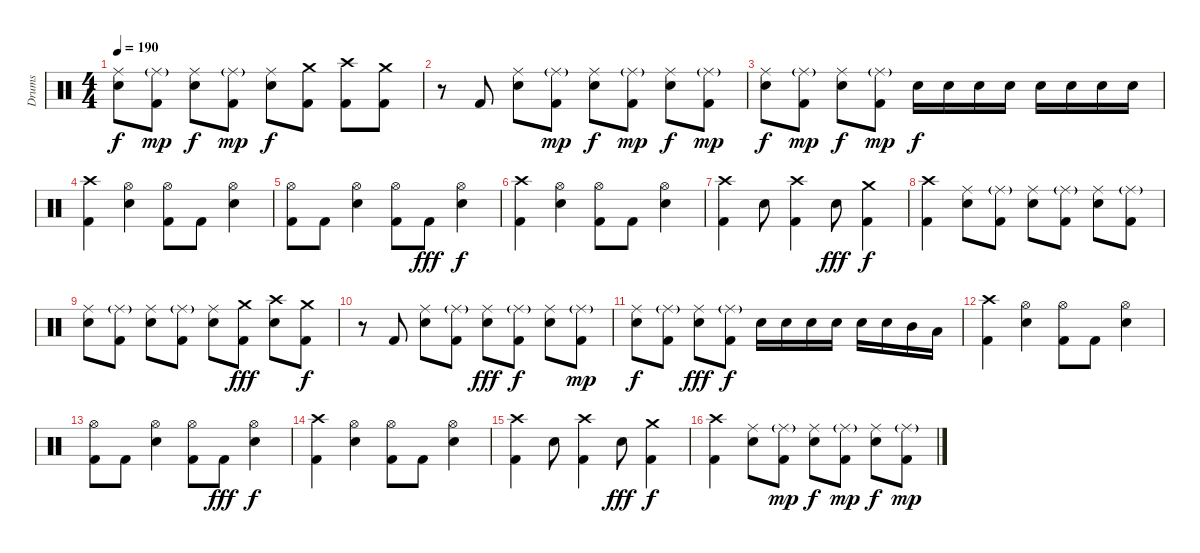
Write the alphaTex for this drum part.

\track ("Drums" "Drums") {instrument percussion}
\staff {score}
\articulation defaults
\ts (4 4)
\tempo 190
\clef neutral
\ks c
("Ride (middle)" "Electric Snare (hit)").8{dy f} ("Ride (middle)"{g} "Kick (hit) 2").8{dy mp} ("Ride (middle)" "Electric Snare (hit)").8{dy f} ("Ride (middle)"{g} "Kick (hit) 2").8{dy mp} ("Ride (middle)" "Electric Snare (hit)").8{dy f} ("Crash medium (hit)" "Kick (hit) 2").8 ("Crash high (hit)" "Kick (hit) 2").8 ("Crash medium (hit)" "Kick (hit) 2").8 |
r.8 "Kick (hit) 2".8 ("Ride (middle)" "Electric Snare (hit)").8 ("Ride (middle)"{g} "Kick (hit) 2").8{dy mp} ("Ride (middle)" "Electric Snare (hit)").8{dy f} ("Ride (middle)"{g} "Kick (hit) 2").8{dy mp} ("Ride (middle)" "Electric Snare (hit)").8{dy f} ("Ride (middle)"{g} "Kick (hit) 2").8{dy mp} |
("Ride (middle)" "Electric Snare (hit)").8{dy f} ("Ride (middle)"{g} "Kick (hit) 2").8{dy mp} ("Ride (middle)" "Electric Snare (hit)").8{dy f} ("Ride (middle)"{g} "Kick (hit) 2").8{dy mp} "Electric Snare (hit)".16{dy f} "Electric Snare (hit)".16 "Electric Snare (hit)".16 "Electric Snare (hit)".16 "Electric Snare (hit)".16 "Electric Snare (hit)".16 "Electric Snare (hit)".16 "Electric Snare (hit)".16 |
("Crash high (hit)" "Kick (hit) 2").4 ("Hi-Hat (open)" "Electric Snare (hit)").4 ("Hi-Hat (open)" "Kick (hit) 2").8 "Kick (hit) 2".8 ("Hi-Hat (open)" "Electric Snare (hit)").4 |
("Hi-Hat (open)" "Kick (hit) 2").8 "Kick (hit) 2".8 ("Hi-Hat (open)" "Electric Snare (hit)").4 ("Hi-Hat (open)" "Kick (hit) 2").8 "Kick (hit) 2".8{dy fff} ("Hi-Hat (open)" "Electric Snare (hit)").4{dy f} |
("Crash high (hit)" "Kick (hit) 2").4 ("Hi-Hat (open)" "Electric Snare (hit)").4 ("Hi-Hat (open)" "Kick (hit) 2").8 "Kick (hit) 2".8 ("Hi-Hat (open)" "Electric Snare (hit)").4 |
("Crash high (hit)" "Kick (hit) 2").4 "Electric Snare (hit)".8 ("Crash high (hit)" "Kick (hit) 2").4 "Electric Snare (hit)".8{dy fff} ("Crash medium (hit)" "Kick (hit) 2").4{dy f} |
("Crash high (hit)" "Kick (hit) 2").4 ("Ride (middle)" "Electric Snare (hit)").8 ("Ride (middle)"{g} "Kick (hit) 2").8 ("Ride (middle)" "Electric Snare (hit)").8 ("Ride (middle)"{g} "Kick (hit) 2").8 ("Ride (middle)" "Electric Snare (hit)").8 ("Ride (middle)"{g} "Kick (hit) 2").8 |
("Ride (middle)" "Electric Snare (hit)").8 ("Ride (middle)"{g} "Kick (hit) 2").8 ("Ride (middle)" "Electric Snare (hit)").8 ("Ride (middle)"{g} "Kick (hit) 2").8 ("Ride (middle)" "Electric Snare (hit)").8 ("Crash medium (hit)" "Kick (hit) 2").8{dy fff} ("Crash high (hit)" "Electric Snare (hit)").8 ("Crash medium (hit)" "Kick (hit) 2").8{dy f} |
r.8 "Kick (hit) 2".8 ("Ride (middle)" "Electric Snare (hit)").8 ("Ride (middle)"{g} "Kick (hit) 2").8 ("Ride (middle)" "Electric Snare (hit)").8{dy fff} ("Ride (middle)"{g} "Kick (hit) 2").8{dy f} ("Ride (middle)" "Electric Snare (hit)").8 ("Ride (middle)"{g} "Kick (hit) 2").8{dy mp} |
("Ride (middle)" "Electric Snare (hit)").8{dy f} ("Ride (middle)"{g} "Kick (hit) 2").8 ("Ride (middle)" "Electric Snare (hit)").8{dy fff} ("Ride (middle)"{g} "Kick (hit) 2").8{dy f} "Electric Snare (hit)".16 "Electric Snare (hit)".16 "Electric Snare (hit)".16 "Electric Snare (hit)".16 "Electric Snare (hit)".16 "Electric Snare (hit)".16 "Mid Tom (hit)".16 "Low Tom (hit)".16 |
("Crash high (hit)" "Kick (hit) 2").4 ("Hi-Hat (open)" "Electric Snare (hit)").4 ("Hi-Hat (open)" "Kick (hit) 2").8 "Kick (hit) 2".8 ("Hi-Hat (open)" "Electric Snare (hit)").4 |
("Hi-Hat (open)" "Kick (hit) 2").8 "Kick (hit) 2".8 ("Hi-Hat (open)" "Electric Snare (hit)").4 ("Hi-Hat (open)" "Kick (hit) 2").8 "Kick (hit) 2".8{dy fff} ("Hi-Hat (open)" "Electric Snare (hit)").4{dy f} |
("Crash high (hit)" "Kick (hit) 2").4 ("Hi-Hat (open)" "Electric Snare (hit)").4 ("Hi-Hat (open)" "Kick (hit) 2").8 "Kick (hit) 2".8 ("Hi-Hat (open)" "Electric Snare (hit)").4 |
("Crash high (hit)" "Kick (hit) 2").4 "Electric Snare (hit)".8 ("Crash high (hit)" "Kick (hit) 2").4 "Electric Snare (hit)".8{dy fff} ("Crash medium (hit)" "Kick (hit) 2").4{dy f} |
("Crash high (hit)" "Kick (hit) 2").4 ("Ride (middle)" "Electric Snare (hit)").8 ("Ride (middle)"{g} "Kick (hit) 2").8{dy mp} ("Ride (middle)" "Electric Snare (hit)").8{dy f} ("Ride (middle)"{g} "Kick (hit) 2").8{dy mp} ("Ride (middle)" "Electric Snare (hit)").8{dy f} ("Ride (middle)"{g} "Kick (hit) 2").8{dy mp}
